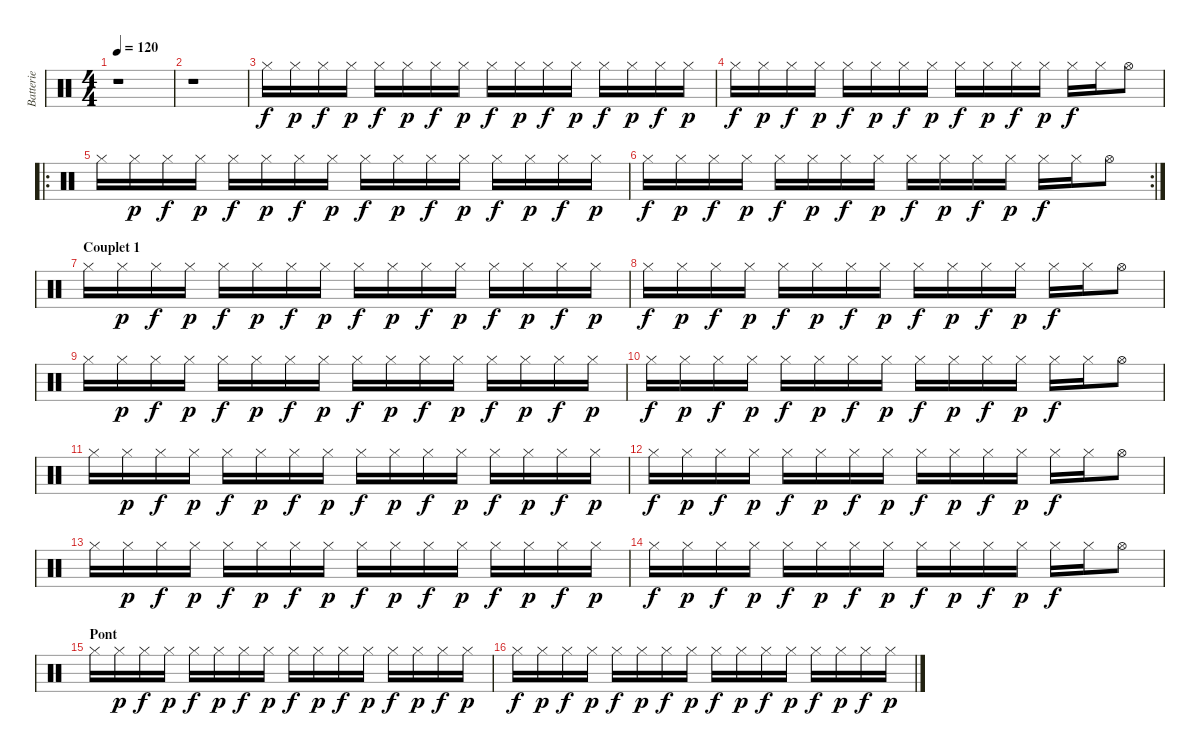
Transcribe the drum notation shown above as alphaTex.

\track ("Batterie" "Batterie") {instrument percussion}
\staff {score}
\articulation defaults
\ts (4 4)
\tempo 120
\clef neutral
\ks c
r.1{dy f} |
r.1 |
"Hi-Hat (closed)".16 "Hi-Hat (closed)".16{dy p} "Hi-Hat (closed)".16{dy f} "Hi-Hat (closed)".16{dy p} "Hi-Hat (closed)".16{dy f} "Hi-Hat (closed)".16{dy p} "Hi-Hat (closed)".16{dy f} "Hi-Hat (closed)".16{dy p} "Hi-Hat (closed)".16{dy f} "Hi-Hat (closed)".16{dy p} "Hi-Hat (closed)".16{dy f} "Hi-Hat (closed)".16{dy p} "Hi-Hat (closed)".16{dy f} "Hi-Hat (closed)".16{dy p} "Hi-Hat (closed)".16{dy f} "Hi-Hat (closed)".16{dy p} |
"Hi-Hat (closed)".16{dy f} "Hi-Hat (closed)".16{dy p} "Hi-Hat (closed)".16{dy f} "Hi-Hat (closed)".16{dy p} "Hi-Hat (closed)".16{dy f} "Hi-Hat (closed)".16{dy p} "Hi-Hat (closed)".16{dy f} "Hi-Hat (closed)".16{dy p} "Hi-Hat (closed)".16{dy f} "Hi-Hat (closed)".16{dy p} "Hi-Hat (closed)".16{dy f} "Hi-Hat (closed)".16{dy p} "Hi-Hat (closed)".16{dy f} "Hi-Hat (closed)".16 "Hi-Hat (open)".8 |
\ro "Hi-Hat (closed)".16 "Hi-Hat (closed)".16{dy p} "Hi-Hat (closed)".16{dy f} "Hi-Hat (closed)".16{dy p} "Hi-Hat (closed)".16{dy f} "Hi-Hat (closed)".16{dy p} "Hi-Hat (closed)".16{dy f} "Hi-Hat (closed)".16{dy p} "Hi-Hat (closed)".16{dy f} "Hi-Hat (closed)".16{dy p} "Hi-Hat (closed)".16{dy f} "Hi-Hat (closed)".16{dy p} "Hi-Hat (closed)".16{dy f} "Hi-Hat (closed)".16{dy p} "Hi-Hat (closed)".16{dy f} "Hi-Hat (closed)".16{dy p}
|
\rc 2 "Hi-Hat (closed)".16{dy f} "Hi-Hat (closed)".16{dy p} "Hi-Hat (closed)".16{dy f} "Hi-Hat (closed)".16{dy p} "Hi-Hat (closed)".16{dy f} "Hi-Hat (closed)".16{dy p} "Hi-Hat (closed)".16{dy f} "Hi-Hat (closed)".16{dy p} "Hi-Hat (closed)".16{dy f} "Hi-Hat (closed)".16{dy p} "Hi-Hat (closed)".16{dy f} "Hi-Hat (closed)".16{dy p} "Hi-Hat (closed)".16{dy f} "Hi-Hat (closed)".16 "Hi-Hat (open)".8
|
\section ("" "Couplet 1")
"Hi-Hat (closed)".16 "Hi-Hat (closed)".16{dy p} "Hi-Hat (closed)".16{dy f} "Hi-Hat (closed)".16{dy p} "Hi-Hat (closed)".16{dy f} "Hi-Hat (closed)".16{dy p} "Hi-Hat (closed)".16{dy f} "Hi-Hat (closed)".16{dy p} "Hi-Hat (closed)".16{dy f} "Hi-Hat (closed)".16{dy p} "Hi-Hat (closed)".16{dy f} "Hi-Hat (closed)".16{dy p} "Hi-Hat (closed)".16{dy f} "Hi-Hat (closed)".16{dy p} "Hi-Hat (closed)".16{dy f} "Hi-Hat (closed)".16{dy p} |
"Hi-Hat (closed)".16{dy f} "Hi-Hat (closed)".16{dy p} "Hi-Hat (closed)".16{dy f} "Hi-Hat (closed)".16{dy p} "Hi-Hat (closed)".16{dy f} "Hi-Hat (closed)".16{dy p} "Hi-Hat (closed)".16{dy f} "Hi-Hat (closed)".16{dy p} "Hi-Hat (closed)".16{dy f} "Hi-Hat (closed)".16{dy p} "Hi-Hat (closed)".16{dy f} "Hi-Hat (closed)".16{dy p} "Hi-Hat (closed)".16{dy f} "Hi-Hat (closed)".16 "Hi-Hat (open)".8 |
"Hi-Hat (closed)".16 "Hi-Hat (closed)".16{dy p} "Hi-Hat (closed)".16{dy f} "Hi-Hat (closed)".16{dy p} "Hi-Hat (closed)".16{dy f} "Hi-Hat (closed)".16{dy p} "Hi-Hat (closed)".16{dy f} "Hi-Hat (closed)".16{dy p} "Hi-Hat (closed)".16{dy f} "Hi-Hat (closed)".16{dy p} "Hi-Hat (closed)".16{dy f} "Hi-Hat (closed)".16{dy p} "Hi-Hat (closed)".16{dy f} "Hi-Hat (closed)".16{dy p} "Hi-Hat (closed)".16{dy f} "Hi-Hat (closed)".16{dy p} |
"Hi-Hat (closed)".16{dy f} "Hi-Hat (closed)".16{dy p} "Hi-Hat (closed)".16{dy f} "Hi-Hat (closed)".16{dy p} "Hi-Hat (closed)".16{dy f} "Hi-Hat (closed)".16{dy p} "Hi-Hat (closed)".16{dy f} "Hi-Hat (closed)".16{dy p} "Hi-Hat (closed)".16{dy f} "Hi-Hat (closed)".16{dy p} "Hi-Hat (closed)".16{dy f} "Hi-Hat (closed)".16{dy p} "Hi-Hat (closed)".16{dy f} "Hi-Hat (closed)".16 "Hi-Hat (open)".8 |
"Hi-Hat (closed)".16 "Hi-Hat (closed)".16{dy p} "Hi-Hat (closed)".16{dy f} "Hi-Hat (closed)".16{dy p} "Hi-Hat (closed)".16{dy f} "Hi-Hat (closed)".16{dy p} "Hi-Hat (closed)".16{dy f} "Hi-Hat (closed)".16{dy p} "Hi-Hat (closed)".16{dy f} "Hi-Hat (closed)".16{dy p} "Hi-Hat (closed)".16{dy f} "Hi-Hat (closed)".16{dy p} "Hi-Hat (closed)".16{dy f} "Hi-Hat (closed)".16{dy p} "Hi-Hat (closed)".16{dy f} "Hi-Hat (closed)".16{dy p} |
"Hi-Hat (closed)".16{dy f} "Hi-Hat (closed)".16{dy p} "Hi-Hat (closed)".16{dy f} "Hi-Hat (closed)".16{dy p} "Hi-Hat (closed)".16{dy f} "Hi-Hat (closed)".16{dy p} "Hi-Hat (closed)".16{dy f} "Hi-Hat (closed)".16{dy p} "Hi-Hat (closed)".16{dy f} "Hi-Hat (closed)".16{dy p} "Hi-Hat (closed)".16{dy f} "Hi-Hat (closed)".16{dy p} "Hi-Hat (closed)".16{dy f} "Hi-Hat (closed)".16 "Hi-Hat (open)".8 |
"Hi-Hat (closed)".16 "Hi-Hat (closed)".16{dy p} "Hi-Hat (closed)".16{dy f} "Hi-Hat (closed)".16{dy p} "Hi-Hat (closed)".16{dy f} "Hi-Hat (closed)".16{dy p} "Hi-Hat (closed)".16{dy f} "Hi-Hat (closed)".16{dy p} "Hi-Hat (closed)".16{dy f} "Hi-Hat (closed)".16{dy p} "Hi-Hat (closed)".16{dy f} "Hi-Hat (closed)".16{dy p} "Hi-Hat (closed)".16{dy f} "Hi-Hat (closed)".16{dy p} "Hi-Hat (closed)".16{dy f} "Hi-Hat (closed)".16{dy p} |
"Hi-Hat (closed)".16{dy f} "Hi-Hat (closed)".16{dy p} "Hi-Hat (closed)".16{dy f} "Hi-Hat (closed)".16{dy p} "Hi-Hat (closed)".16{dy f} "Hi-Hat (closed)".16{dy p} "Hi-Hat (closed)".16{dy f} "Hi-Hat (closed)".16{dy p} "Hi-Hat (closed)".16{dy f} "Hi-Hat (closed)".16{dy p} "Hi-Hat (closed)".16{dy f} "Hi-Hat (closed)".16{dy p} "Hi-Hat (closed)".16{dy f} "Hi-Hat (closed)".16 "Hi-Hat (open)".8 |
\section ("" "Pont")
"Hi-Hat (closed)".16 "Hi-Hat (closed)".16{dy p} "Hi-Hat (closed)".16{dy f} "Hi-Hat (closed)".16{dy p} "Hi-Hat (closed)".16{dy f} "Hi-Hat (closed)".16{dy p} "Hi-Hat (closed)".16{dy f} "Hi-Hat (closed)".16{dy p} "Hi-Hat (closed)".16{dy f} "Hi-Hat (closed)".16{dy p} "Hi-Hat (closed)".16{dy f} "Hi-Hat (closed)".16{dy p} "Hi-Hat (closed)".16{dy f} "Hi-Hat (closed)".16{dy p} "Hi-Hat (closed)".16{dy f} "Hi-Hat (closed)".16{dy p} |
"Hi-Hat (closed)".16{dy f} "Hi-Hat (closed)".16{dy p} "Hi-Hat (closed)".16{dy f} "Hi-Hat (closed)".16{dy p} "Hi-Hat (closed)".16{dy f} "Hi-Hat (closed)".16{dy p} "Hi-Hat (closed)".16{dy f} "Hi-Hat (closed)".16{dy p} "Hi-Hat (closed)".16{dy f} "Hi-Hat (closed)".16{dy p} "Hi-Hat (closed)".16{dy f} "Hi-Hat (closed)".16{dy p} "Hi-Hat (closed)".16{dy f} "Hi-Hat (closed)".16{dy p} "Hi-Hat (closed)".16{dy f} "Hi-Hat (closed)".16{dy p}
